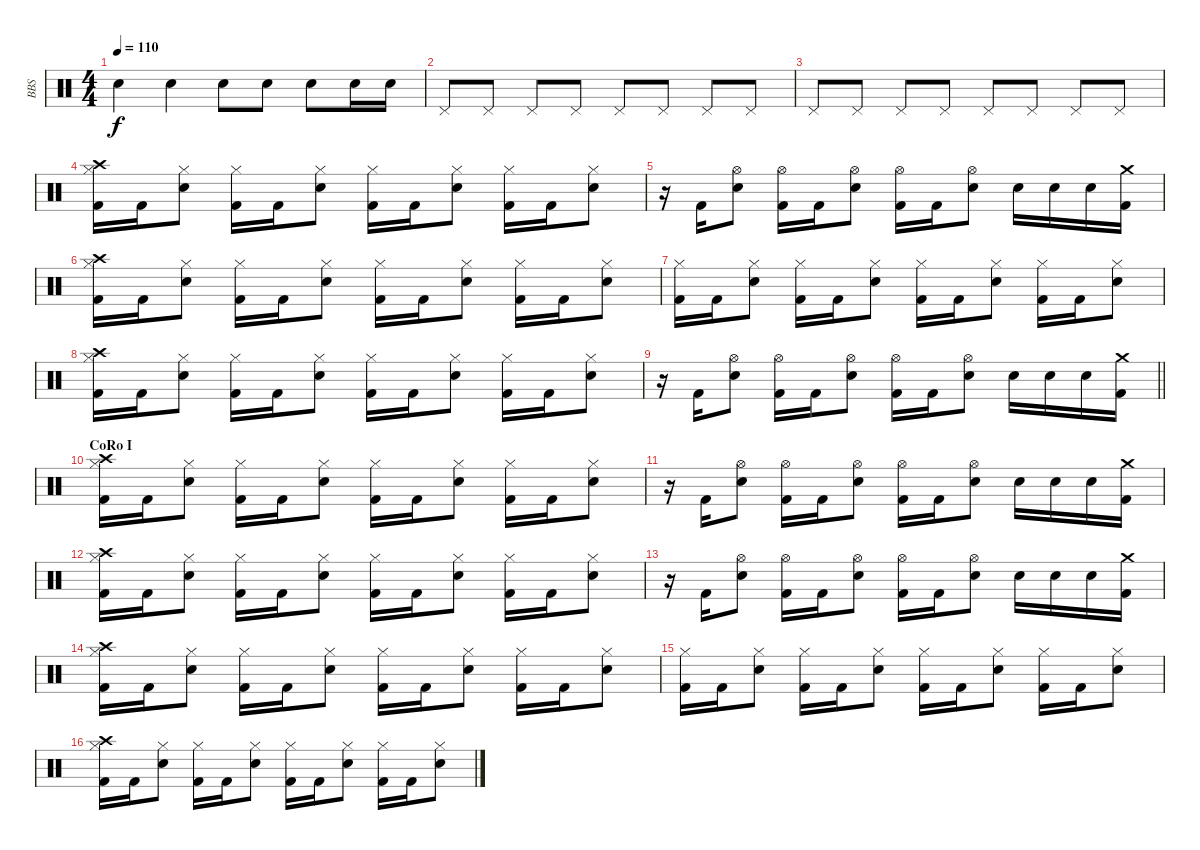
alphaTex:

\track ("BBS" "BBS") {instrument percussion}
\staff {score}
\articulation defaults
\ts (4 4)
\tempo 110
\clef neutral
\ks c "Snare (hit) 2".4{dy f} "Snare (hit) 2".4 "Snare (hit) 2".8 "Snare (hit) 2".8 "Snare (hit) 2".8 "Snare (hit) 2".16 "Snare (hit) 2".16
|
"Pedal Hi-Hat (hit)".8 "Pedal Hi-Hat (hit)".8 "Pedal Hi-Hat (hit)".8 "Pedal Hi-Hat (hit)".8 "Pedal Hi-Hat (hit)".8 "Pedal Hi-Hat (hit)".8 "Pedal Hi-Hat (hit)".8 "Pedal Hi-Hat (hit)".8 |
"Pedal Hi-Hat (hit)".8 "Pedal Hi-Hat (hit)".8 "Pedal Hi-Hat (hit)".8 "Pedal Hi-Hat (hit)".8 "Pedal Hi-Hat (hit)".8 "Pedal Hi-Hat (hit)".8 "Pedal Hi-Hat (hit)".8 "Pedal Hi-Hat (hit)".8 |
("Crash high (hit)" "Hi-Hat (closed)" "Kick (hit) 2").16 "Kick (hit) 2".16 ("Hi-Hat (closed)" "Snare (hit) 2").8 ("Hi-Hat (closed)" "Kick (hit) 2").16 "Kick (hit) 2".16 ("Hi-Hat (closed)" "Snare (hit) 2").8 ("Hi-Hat (closed)" "Kick (hit) 2").16 "Kick (hit) 2".16 ("Hi-Hat (closed)" "Snare (hit) 2").8 ("Hi-Hat (closed)" "Kick (hit) 2").16 "Kick (hit) 2".16 ("Hi-Hat (closed)" "Snare (hit) 2").8 |
r.16 "Kick (hit) 2".16 ("Hi-Hat (open)" "Electric Snare (hit)").8 ("Hi-Hat (open)" "Kick (hit) 2").16 "Kick (hit) 2".16 ("Hi-Hat (open)" "Electric Snare (hit)").8 ("Hi-Hat (open)" "Kick (hit) 2").16 "Kick (hit) 2".16 ("Hi-Hat (open)" "Electric Snare (hit)").8 "Electric Snare (hit)".16 "Electric Snare (hit)".16 "Electric Snare (hit)".16 ("Crash medium (hit)" "Kick (hit) 2").16 |
("Crash high (hit)" "Hi-Hat (closed)" "Kick (hit) 2").16 "Kick (hit) 2".16 ("Hi-Hat (closed)" "Snare (hit) 2").8 ("Hi-Hat (closed)" "Kick (hit) 2").16 "Kick (hit) 2".16 ("Hi-Hat (closed)" "Snare (hit) 2").8 ("Hi-Hat (closed)" "Kick (hit) 2").16 "Kick (hit) 2".16 ("Hi-Hat (closed)" "Snare (hit) 2").8 ("Hi-Hat (closed)" "Kick (hit) 2").16 "Kick (hit) 2".16 ("Hi-Hat (closed)" "Snare (hit) 2").8 |
("Hi-Hat (closed)" "Kick (hit) 2").16 "Kick (hit) 2".16 ("Hi-Hat (closed)" "Snare (hit) 2").8 ("Hi-Hat (closed)" "Kick (hit) 2").16 "Kick (hit) 2".16 ("Hi-Hat (closed)" "Snare (hit) 2").8 ("Hi-Hat (closed)" "Kick (hit) 2").16 "Kick (hit) 2".16 ("Hi-Hat (closed)" "Snare (hit) 2").8 ("Hi-Hat (closed)" "Kick (hit) 2").16 "Kick (hit) 2".16 ("Hi-Hat (closed)" "Snare (hit) 2").8 |
("Crash high (hit)" "Hi-Hat (closed)" "Kick (hit) 2").16 "Kick (hit) 2".16 ("Hi-Hat (closed)" "Snare (hit) 2").8 ("Hi-Hat (closed)" "Kick (hit) 2").16 "Kick (hit) 2".16 ("Hi-Hat (closed)" "Snare (hit) 2").8 ("Hi-Hat (closed)" "Kick (hit) 2").16 "Kick (hit) 2".16 ("Hi-Hat (closed)" "Snare (hit) 2").8 ("Hi-Hat (closed)" "Kick (hit) 2").16 "Kick (hit) 2".16 ("Hi-Hat (closed)" "Snare (hit) 2").8 |
\barLineRight lightlight
r.16 "Kick (hit) 2".16 ("Hi-Hat (open)" "Electric Snare (hit)").8 ("Hi-Hat (open)" "Kick (hit) 2").16 "Kick (hit) 2".16 ("Hi-Hat (open)" "Electric Snare (hit)").8 ("Hi-Hat (open)" "Kick (hit) 2").16 "Kick (hit) 2".16 ("Hi-Hat (open)" "Electric Snare (hit)").8 "Electric Snare (hit)".16 "Electric Snare (hit)".16 "Electric Snare (hit)".16 ("Crash medium (hit)" "Kick (hit) 2").16 |
\section ("" "CoRo I")
("Crash high (hit)" "Hi-Hat (closed)" "Kick (hit) 2").16 "Kick (hit) 2".16 ("Hi-Hat (closed)" "Snare (hit) 2").8 ("Hi-Hat (closed)" "Kick (hit) 2").16 "Kick (hit) 2".16 ("Hi-Hat (closed)" "Snare (hit) 2").8 ("Hi-Hat (closed)" "Kick (hit) 2").16 "Kick (hit) 2".16 ("Hi-Hat (closed)" "Snare (hit) 2").8 ("Hi-Hat (closed)" "Kick (hit) 2").16 "Kick (hit) 2".16 ("Hi-Hat (closed)" "Snare (hit) 2").8 |
r.16 "Kick (hit) 2".16 ("Hi-Hat (open)" "Electric Snare (hit)").8 ("Hi-Hat (open)" "Kick (hit) 2").16 "Kick (hit) 2".16 ("Hi-Hat (open)" "Electric Snare (hit)").8 ("Hi-Hat (open)" "Kick (hit) 2").16 "Kick (hit) 2".16 ("Hi-Hat (open)" "Electric Snare (hit)").8 "Electric Snare (hit)".16 "Electric Snare (hit)".16 "Electric Snare (hit)".16 ("Crash medium (hit)" "Kick (hit) 2").16 |
("Crash high (hit)" "Hi-Hat (closed)" "Kick (hit) 2").16 "Kick (hit) 2".16 ("Hi-Hat (closed)" "Snare (hit) 2").8 ("Hi-Hat (closed)" "Kick (hit) 2").16 "Kick (hit) 2".16 ("Hi-Hat (closed)" "Snare (hit) 2").8 ("Hi-Hat (closed)" "Kick (hit) 2").16 "Kick (hit) 2".16 ("Hi-Hat (closed)" "Snare (hit) 2").8 ("Hi-Hat (closed)" "Kick (hit) 2").16 "Kick (hit) 2".16 ("Hi-Hat (closed)" "Snare (hit) 2").8 |
r.16 "Kick (hit) 2".16 ("Hi-Hat (open)" "Electric Snare (hit)").8 ("Hi-Hat (open)" "Kick (hit) 2").16 "Kick (hit) 2".16 ("Hi-Hat (open)" "Electric Snare (hit)").8 ("Hi-Hat (open)" "Kick (hit) 2").16 "Kick (hit) 2".16 ("Hi-Hat (open)" "Electric Snare (hit)").8 "Electric Snare (hit)".16 "Electric Snare (hit)".16 "Electric Snare (hit)".16 ("Crash medium (hit)" "Kick (hit) 2").16 |
("Crash high (hit)" "Hi-Hat (closed)" "Kick (hit) 2").16 "Kick (hit) 2".16 ("Hi-Hat (closed)" "Snare (hit) 2").8 ("Hi-Hat (closed)" "Kick (hit) 2").16 "Kick (hit) 2".16 ("Hi-Hat (closed)" "Snare (hit) 2").8 ("Hi-Hat (closed)" "Kick (hit) 2").16 "Kick (hit) 2".16 ("Hi-Hat (closed)" "Snare (hit) 2").8 ("Hi-Hat (closed)" "Kick (hit) 2").16 "Kick (hit) 2".16 ("Hi-Hat (closed)" "Snare (hit) 2").8 |
("Hi-Hat (closed)" "Kick (hit) 2").16 "Kick (hit) 2".16 ("Hi-Hat (closed)" "Snare (hit) 2").8 ("Hi-Hat (closed)" "Kick (hit) 2").16 "Kick (hit) 2".16 ("Hi-Hat (closed)" "Snare (hit) 2").8 ("Hi-Hat (closed)" "Kick (hit) 2").16 "Kick (hit) 2".16 ("Hi-Hat (closed)" "Snare (hit) 2").8 ("Hi-Hat (closed)" "Kick (hit) 2").16 "Kick (hit) 2".16 ("Hi-Hat (closed)" "Snare (hit) 2").8 |
("Crash high (hit)" "Hi-Hat (closed)" "Kick (hit) 2").16 "Kick (hit) 2".16 ("Hi-Hat (closed)" "Snare (hit) 2").8 ("Hi-Hat (closed)" "Kick (hit) 2").16 "Kick (hit) 2".16 ("Hi-Hat (closed)" "Snare (hit) 2").8 ("Hi-Hat (closed)" "Kick (hit) 2").16 "Kick (hit) 2".16 ("Hi-Hat (closed)" "Snare (hit) 2").8 ("Hi-Hat (closed)" "Kick (hit) 2").16 "Kick (hit) 2".16 ("Hi-Hat (closed)" "Snare (hit) 2").8
